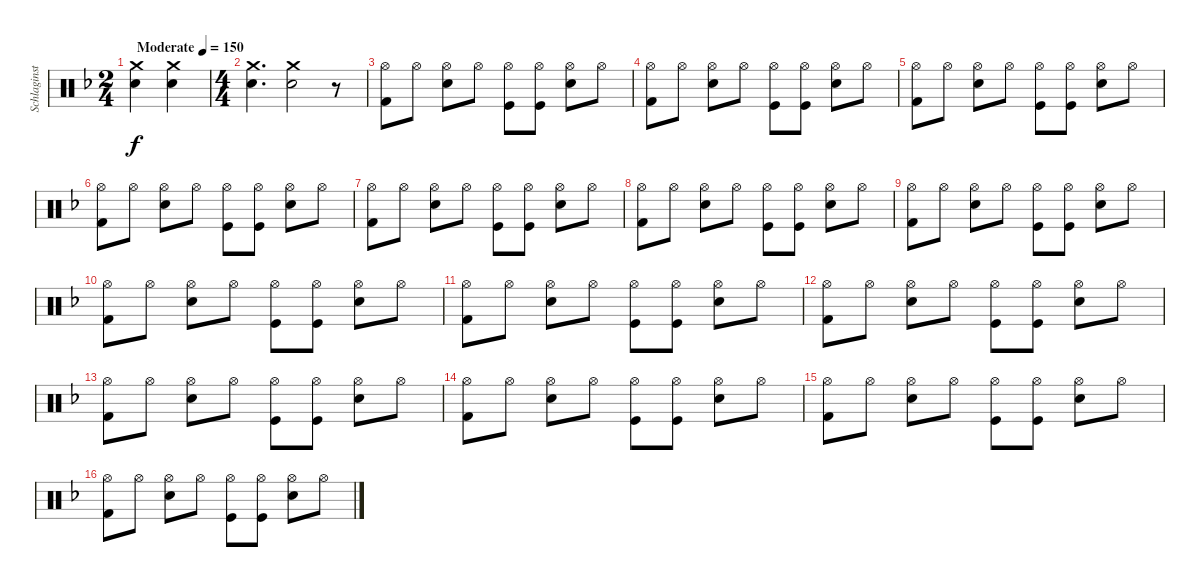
\track ("Schlaginstrumente - Auswahl" "Schlaginst") {instrument percussion}
\staff {score}
\articulation defaults
\ts (2 4)
\tempo (150 "Moderate")
\clef neutral
\ks f
("Crash medium (hit)" "Snare (hit) 2").4{dy f} ("Snare (hit) 2" "Crash medium (hit)").4 |
\ts (4 4)
("Snare (hit) 2" "Crash medium (hit)").4{d} ("Snare (hit) 2" "Crash medium (hit)").2 r.8 |
("Hi-Hat (open)" "Kick (hit) 2").8 "Hi-Hat (open)".8 ("Hi-Hat (open)" "Snare (hit) 2").8 "Hi-Hat (open)".8 ("Hi-Hat (open)" "Kick (hit)").8 ("Kick (hit)" "Hi-Hat (open)").8 ("Hi-Hat (open)" "Snare (hit) 2").8 "Hi-Hat (open)".8 |
("Hi-Hat (open)" "Kick (hit) 2").8 "Hi-Hat (open)".8 ("Hi-Hat (open)" "Snare (hit) 2").8 "Hi-Hat (open)".8 ("Hi-Hat (open)" "Kick (hit)").8 ("Kick (hit)" "Hi-Hat (open)").8 ("Hi-Hat (open)" "Snare (hit) 2").8 "Hi-Hat (open)".8 |
("Hi-Hat (open)" "Kick (hit) 2").8 "Hi-Hat (open)".8 ("Hi-Hat (open)" "Snare (hit) 2").8 "Hi-Hat (open)".8 ("Hi-Hat (open)" "Kick (hit)").8 ("Kick (hit)" "Hi-Hat (open)").8 ("Hi-Hat (open)" "Snare (hit) 2").8 "Hi-Hat (open)".8 |
("Hi-Hat (open)" "Kick (hit) 2").8 "Hi-Hat (open)".8 ("Hi-Hat (open)" "Snare (hit) 2").8 "Hi-Hat (open)".8 ("Hi-Hat (open)" "Kick (hit)").8 ("Kick (hit)" "Hi-Hat (open)").8 ("Hi-Hat (open)" "Snare (hit) 2").8 "Hi-Hat (open)".8 |
("Hi-Hat (open)" "Kick (hit) 2").8 "Hi-Hat (open)".8 ("Hi-Hat (open)" "Snare (hit) 2").8 "Hi-Hat (open)".8 ("Hi-Hat (open)" "Kick (hit)").8 ("Kick (hit)" "Hi-Hat (open)").8 ("Hi-Hat (open)" "Snare (hit) 2").8 "Hi-Hat (open)".8 |
("Hi-Hat (open)" "Kick (hit) 2").8 "Hi-Hat (open)".8 ("Hi-Hat (open)" "Snare (hit) 2").8 "Hi-Hat (open)".8 ("Hi-Hat (open)" "Kick (hit)").8 ("Kick (hit)" "Hi-Hat (open)").8 ("Hi-Hat (open)" "Snare (hit) 2").8 "Hi-Hat (open)".8 |
("Hi-Hat (open)" "Kick (hit) 2").8 "Hi-Hat (open)".8 ("Hi-Hat (open)" "Snare (hit) 2").8 "Hi-Hat (open)".8 ("Hi-Hat (open)" "Kick (hit)").8 ("Kick (hit)" "Hi-Hat (open)").8 ("Hi-Hat (open)" "Snare (hit) 2").8 "Hi-Hat (open)".8 |
("Hi-Hat (open)" "Kick (hit) 2").8 "Hi-Hat (open)".8 ("Hi-Hat (open)" "Snare (hit) 2").8 "Hi-Hat (open)".8 ("Hi-Hat (open)" "Kick (hit)").8 ("Kick (hit)" "Hi-Hat (open)").8 ("Hi-Hat (open)" "Snare (hit) 2").8 "Hi-Hat (open)".8 |
("Hi-Hat (open)" "Kick (hit) 2").8 "Hi-Hat (open)".8 ("Hi-Hat (open)" "Snare (hit) 2").8 "Hi-Hat (open)".8 ("Hi-Hat (open)" "Kick (hit)").8 ("Kick (hit)" "Hi-Hat (open)").8 ("Hi-Hat (open)" "Snare (hit) 2").8 "Hi-Hat (open)".8 |
("Hi-Hat (open)" "Kick (hit) 2").8 "Hi-Hat (open)".8 ("Hi-Hat (open)" "Snare (hit) 2").8 "Hi-Hat (open)".8 ("Hi-Hat (open)" "Kick (hit)").8 ("Kick (hit)" "Hi-Hat (open)").8 ("Hi-Hat (open)" "Snare (hit) 2").8 "Hi-Hat (open)".8 |
("Hi-Hat (open)" "Kick (hit) 2").8 "Hi-Hat (open)".8 ("Hi-Hat (open)" "Snare (hit) 2").8 "Hi-Hat (open)".8 ("Hi-Hat (open)" "Kick (hit)").8 ("Kick (hit)" "Hi-Hat (open)").8 ("Hi-Hat (open)" "Snare (hit) 2").8 "Hi-Hat (open)".8 |
("Hi-Hat (open)" "Kick (hit) 2").8 "Hi-Hat (open)".8 ("Hi-Hat (open)" "Snare (hit) 2").8 "Hi-Hat (open)".8 ("Hi-Hat (open)" "Kick (hit)").8 ("Kick (hit)" "Hi-Hat (open)").8 ("Hi-Hat (open)" "Snare (hit) 2").8 "Hi-Hat (open)".8 |
("Hi-Hat (open)" "Kick (hit) 2").8 "Hi-Hat (open)".8 ("Hi-Hat (open)" "Snare (hit) 2").8 "Hi-Hat (open)".8 ("Hi-Hat (open)" "Kick (hit)").8 ("Kick (hit)" "Hi-Hat (open)").8 ("Hi-Hat (open)" "Snare (hit) 2").8 "Hi-Hat (open)".8 |
("Hi-Hat (open)" "Kick (hit) 2").8 "Hi-Hat (open)".8 ("Hi-Hat (open)" "Snare (hit) 2").8 "Hi-Hat (open)".8 ("Hi-Hat (open)" "Kick (hit)").8 ("Kick (hit)" "Hi-Hat (open)").8 ("Hi-Hat (open)" "Snare (hit) 2").8 "Hi-Hat (open)".8
